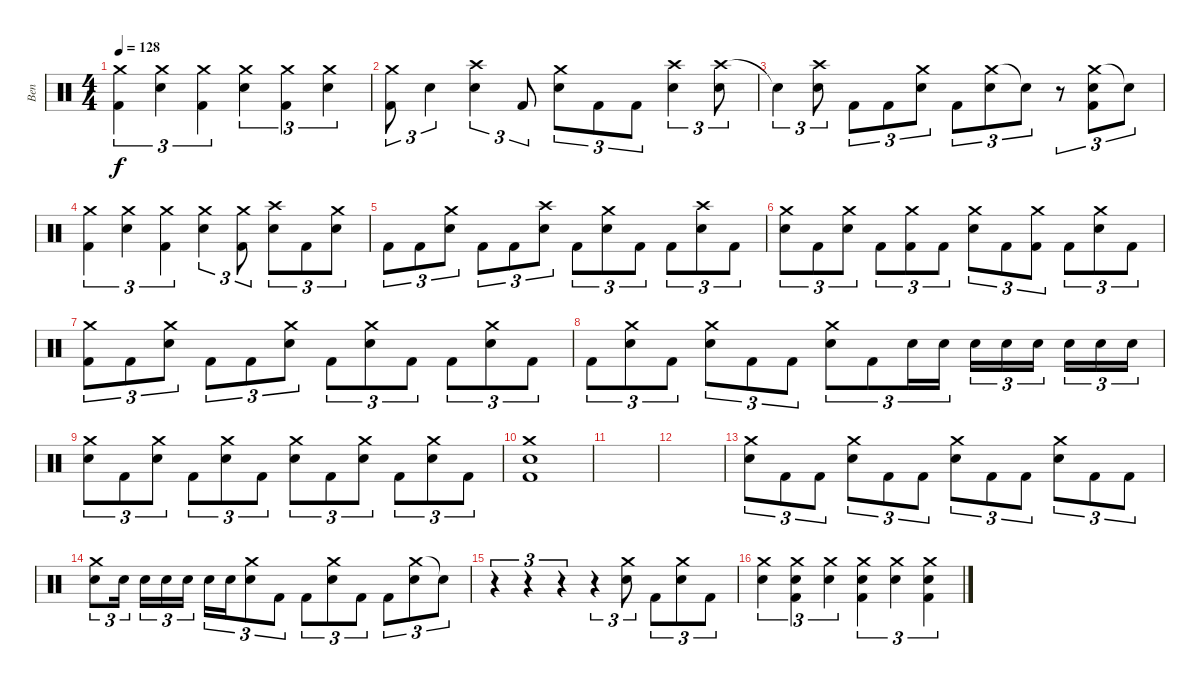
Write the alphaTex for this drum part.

\track ("Ben" "Ben") {instrument percussion}
\staff {score}
\articulation defaults
\ts (4 4)
\tempo 128
\clef neutral
\ks c
("Crash medium (hit)" "Kick (hit) 2").4{tu (3 2) dy f} ("Crash medium (hit)" "Electric Snare (hit)").4{tu (3 2)} ("Crash medium (hit)" "Kick (hit) 2").4{tu (3 2)} ("Crash medium (hit)" "Electric Snare (hit)").4{tu (3 2)} ("Crash medium (hit)" "Kick (hit) 2").4{tu (3 2)} ("Crash medium (hit)" "Electric Snare (hit)").4{tu (3 2)} |
("Crash medium (hit)" "Kick (hit) 2").8{tu (3 2)} "Electric Snare (hit)".4{tu (3 2)} ("Crash high (hit)" "Electric Snare (hit)").4{tu (3 2)} "Kick (hit) 2".8{tu (3 2)} ("Crash medium (hit)" "Electric Snare (hit)").8{tu (3 2)} "Kick (hit) 2".8{tu (3 2)} "Kick (hit) 2".8{tu (3 2)} ("Crash high (hit)" "Electric Snare (hit)").4{tu (3 2)} ("Crash high (hit)" "Electric Snare (hit)").8{tu (3 2)} |
"Snare (hit)"{t}.4{tu (3 2)} ("Crash high (hit)" "Electric Snare (hit)").8{tu (3 2)} "Kick (hit) 2".8{tu (3 2)} "Kick (hit) 2".8{tu (3 2)} ("Crash medium (hit)" "Electric Snare (hit)").8{tu (3 2)} "Kick (hit) 2".8{tu (3 2)} ("Crash medium (hit)" "Electric Snare (hit)").8{tu (3 2)} "Snare (hit)"{t}.8{tu (3 2)} r.8{tu (3 2)} ("Crash medium (hit)" "Electric Snare (hit)" "Kick (hit) 2").8{tu (3 2)} "Snare (hit)"{t}.8{tu (3 2)} |
("Crash medium (hit)" "Kick (hit) 2").4{tu (3 2)} ("Crash medium (hit)" "Electric Snare (hit)").4{tu (3 2)} ("Crash medium (hit)" "Kick (hit) 2").4{tu (3 2)} ("Crash medium (hit)" "Electric Snare (hit)").4{tu (3 2)} ("Crash medium (hit)" "Kick (hit) 2").8{tu (3 2)} ("Crash high (hit)" "Electric Snare (hit)").8{tu (3 2)} "Kick (hit) 2".8{tu (3 2)} ("Crash medium (hit)" "Electric Snare (hit)").8{tu (3 2)} |
"Kick (hit) 2".8{tu (3 2)} "Kick (hit) 2".8{tu (3 2)} ("Crash medium (hit)" "Electric Snare (hit)").8{tu (3 2)} "Kick (hit) 2".8{tu (3 2)} "Kick (hit) 2".8{tu (3 2)} ("Crash high (hit)" "Electric Snare (hit)").8{tu (3 2)} "Kick (hit) 2".8{tu (3 2)} ("Crash medium (hit)" "Electric Snare (hit)").8{tu (3 2)} "Kick (hit) 2".8{tu (3 2)} "Kick (hit) 2".8{tu (3 2)} ("Crash high (hit)" "Electric Snare (hit)").8{tu (3 2)} "Kick (hit) 2".8{tu (3 2)} |
("Crash medium (hit)" "Electric Snare (hit)").8{tu (3 2)} "Kick (hit) 2".8{tu (3 2)} ("Crash medium (hit)" "Electric Snare (hit)").8{tu (3 2)} "Kick (hit) 2".8{tu (3 2)} ("Crash medium (hit)" "Kick (hit) 2").8{tu (3 2)} "Kick (hit) 2".8{tu (3 2)} ("Crash medium (hit)" "Electric Snare (hit)").8{tu (3 2)} "Kick (hit) 2".8{tu (3 2)} ("Crash medium (hit)" "Kick (hit) 2").8{tu (3 2)} "Kick (hit) 2".8{tu (3 2)} ("Crash medium (hit)" "Electric Snare (hit)").8{tu (3 2)} "Kick (hit) 2".8{tu (3 2)} |
("Crash medium (hit)" "Kick (hit) 2").8{tu (3 2)} "Kick (hit) 2".8{tu (3 2)} ("Crash medium (hit)" "Electric Snare (hit)").8{tu (3 2)} "Kick (hit) 2".8{tu (3 2)} "Kick (hit) 2".8{tu (3 2)} ("Crash medium (hit)" "Electric Snare (hit)").8{tu (3 2)} "Kick (hit) 2".8{tu (3 2)} ("Crash medium (hit)" "Electric Snare (hit)").8{tu (3 2)} "Kick (hit) 2".8{tu (3 2)} "Kick (hit) 2".8{tu (3 2)} ("Crash medium (hit)" "Electric Snare (hit)").8{tu (3 2)} "Kick (hit) 2".8{tu (3 2)} |
"Kick (hit) 2".8{tu (3 2)} ("Crash medium (hit)" "Electric Snare (hit)").8{tu (3 2)} "Kick (hit) 2".8{tu (3 2)} ("Crash medium (hit)" "Electric Snare (hit)").8{tu (3 2)} "Kick (hit) 2".8{tu (3 2)} "Kick (hit) 2".8{tu (3 2)} ("Crash medium (hit)" "Electric Snare (hit)").8{tu (3 2)} "Kick (hit) 2".8{tu (3 2)} "Electric Snare (hit)".16{tu (3 2)} "Electric Snare (hit)".16{tu (3 2)} "Electric Snare (hit)".16{tu (3 2)} "Electric Snare (hit)".16{tu (3 2)} "Electric Snare (hit)".16{tu (3 2)} "Electric Snare (hit)".16{tu (3 2)} "Electric Snare (hit)".16{tu (3 2)} "Electric Snare (hit)".16{tu (3 2)} |
("Crash medium (hit)" "Electric Snare (hit)").8{tu (3 2)} "Kick (hit) 2".8{tu (3 2)} ("Crash medium (hit)" "Electric Snare (hit)").8{tu (3 2)} "Kick (hit) 2".8{tu (3 2)} ("Crash medium (hit)" "Electric Snare (hit)").8{tu (3 2)} "Kick (hit) 2".8{tu (3 2)} ("Crash medium (hit)" "Electric Snare (hit)").8{tu (3 2)} "Kick (hit) 2".8{tu (3 2)} ("Crash medium (hit)" "Electric Snare (hit)").8{tu (3 2)} "Kick (hit) 2".8{tu (3 2)} ("Crash medium (hit)" "Electric Snare (hit)").8{tu (3 2)} "Kick (hit) 2".8{tu (3 2)} |
("Crash medium (hit)" "Electric Snare (hit)" "Kick (hit) 2").1 |
|
|
("Crash medium (hit)" "Electric Snare (hit)").8{tu (3 2)} "Kick (hit) 2".8{tu (3 2)} "Kick (hit) 2".8{tu (3 2)} ("Crash medium (hit)" "Electric Snare (hit)").8{tu (3 2)} "Kick (hit) 2".8{tu (3 2)} "Kick (hit) 2".8{tu (3 2)} ("Crash medium (hit)" "Electric Snare (hit)").8{tu (3 2)} "Kick (hit) 2".8{tu (3 2)} "Kick (hit) 2".8{tu (3 2)} ("Crash medium (hit)" "Electric Snare (hit)").8{tu (3 2)} "Kick (hit) 2".8{tu (3 2)} "Kick (hit) 2".8{tu (3 2)} |
("Crash medium (hit)" "Electric Snare (hit)").8{tu (3 2)} "Electric Snare (hit)".16{tu (3 2)} "Electric Snare (hit)".16{tu (3 2)} "Electric Snare (hit)".16{tu (3 2)} "Electric Snare (hit)".16{tu (3 2)} "Electric Snare (hit)".16{tu (3 2)} "Electric Snare (hit)".16{tu (3 2)} ("Crash medium (hit)" "Electric Snare (hit)").8{tu (3 2)} "Kick (hit) 2".8{tu (3 2)} "Kick (hit) 2".8{tu (3 2)} ("Crash medium (hit)" "Electric Snare (hit)").8{tu (3 2)} "Kick (hit) 2".8{tu (3 2)} "Kick (hit) 2".8{tu (3 2)} ("Crash medium (hit)" "Electric Snare (hit)").8{tu (3 2)} "Snare (hit)"{t}.8{tu (3 2)} |
r.4{tu (3 2)} r.4{tu (3 2)} r.4{tu (3 2)} r.4{tu (3 2)} ("Crash medium (hit)" "Electric Snare (hit)").8{tu (3 2)} "Kick (hit) 2".8{tu (3 2)} ("Crash medium (hit)" "Electric Snare (hit)").8{tu (3 2)} "Kick (hit) 2".8{tu (3 2)} |
("Crash medium (hit)" "Electric Snare (hit)").4{tu (3 2)} ("Crash medium (hit)" "Electric Snare (hit)" "Kick (hit) 2").4{tu (3 2)} ("Crash medium (hit)" "Electric Snare (hit)").4{tu (3 2)} ("Crash medium (hit)" "Electric Snare (hit)" "Kick (hit) 2").4{tu (3 2)} ("Crash medium (hit)" "Electric Snare (hit)").4{tu (3 2)} ("Crash medium (hit)" "Electric Snare (hit)" "Kick (hit) 2").4{tu (3 2)}
